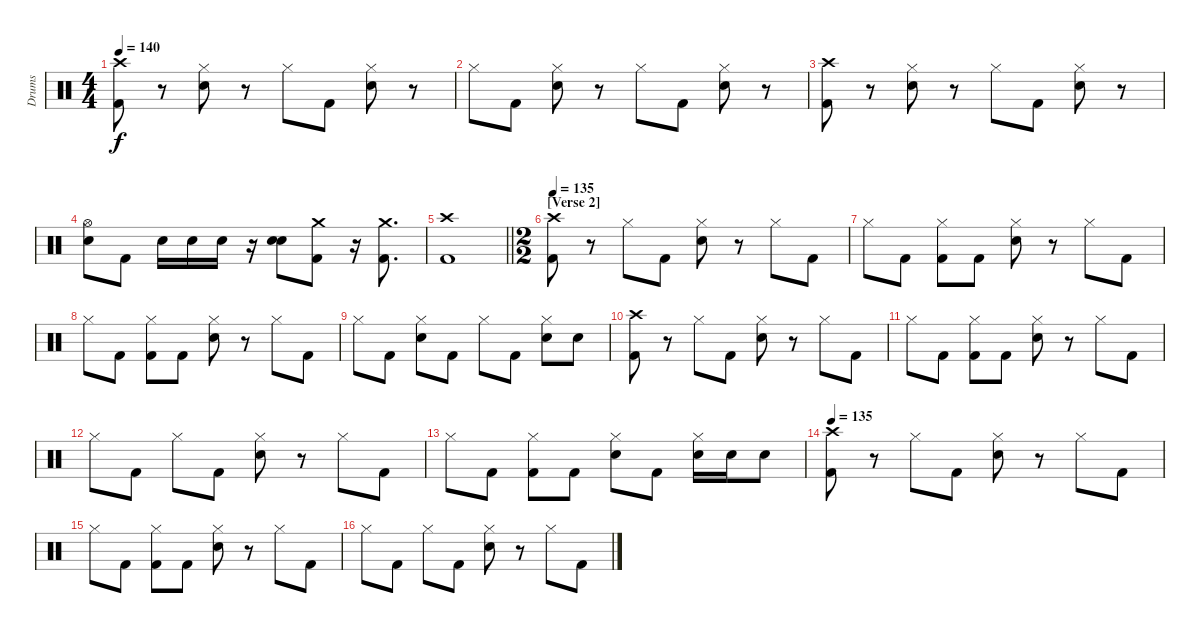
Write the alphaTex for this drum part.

\track ("Drums" "Drums") {instrument percussion}
\staff {score}
\articulation defaults
\ts (4 4)
\tempo 140
\clef neutral
\ks c
("Crash high (hit)" "Kick (hit) 2").8{dy f} r.8 ("Hi-Hat (closed)" "Snare (hit) 2").8 r.8 "Hi-Hat (closed)".8 "Kick (hit) 2".8 ("Hi-Hat (closed)" "Snare (hit) 2").8 r.8 |
"Hi-Hat (closed)".8 "Kick (hit) 2".8 ("Hi-Hat (closed)" "Snare (hit) 2").8 r.8 "Hi-Hat (closed)".8 "Kick (hit) 2".8 ("Hi-Hat (closed)" "Snare (hit) 2").8 r.8 |
("Crash high (hit)" "Kick (hit) 2").8 r.8 ("Hi-Hat (closed)" "Snare (hit) 2").8 r.8 "Hi-Hat (closed)".8 "Kick (hit) 2".8 ("Hi-Hat (closed)" "Snare (hit) 2").8 r.8 |
("Hi-Hat (open)" "Snare (hit) 2").8 "Kick (hit) 2".8 "Snare (hit) 2".16 "Snare (hit) 2".16 "Snare (hit) 2".16 r.16 ("Snare (hit) 2" "Snare (hit) 2").8{bd 480} ("Crash medium (hit)" "Kick (hit) 2").8 r.16 ("Crash medium (hit)" "Kick (hit) 2").8{d} |
\barLineRight lightlight
("Crash high (hit)" "Kick (hit) 2").1 |
\ts (2 2)
\section ("" "[Verse 2]")
\tempo 120
\tempo 135
("Crash high (hit)" "Kick (hit) 2").8 r.8 "Hi-Hat (closed)".8 "Kick (hit) 2".8 ("Hi-Hat (closed)" "Snare (hit) 2").8 r.8 "Hi-Hat (closed)".8 "Kick (hit) 2".8 |
"Hi-Hat (closed)".8 "Kick (hit) 2".8 ("Hi-Hat (closed)" "Kick (hit) 2").8 "Kick (hit) 2".8 ("Hi-Hat (closed)" "Snare (hit) 2").8 r.8 "Hi-Hat (closed)".8 "Kick (hit) 2".8 |
"Hi-Hat (closed)".8 "Kick (hit) 2".8 ("Hi-Hat (closed)" "Kick (hit) 2").8 "Kick (hit) 2".8 ("Hi-Hat (closed)" "Snare (hit) 2").8 r.8 "Hi-Hat (closed)".8 "Kick (hit) 2".8 |
"Hi-Hat (closed)".8 "Kick (hit) 2".8 ("Hi-Hat (closed)" "Snare (hit) 2").8 "Kick (hit) 2".8 "Hi-Hat (closed)".8 "Kick (hit) 2".8 ("Hi-Hat (closed)" "Snare (hit) 2").8 "Snare (hit) 2".8 |
("Crash high (hit)" "Kick (hit) 2").8 r.8 "Hi-Hat (closed)".8 "Kick (hit) 2".8 ("Hi-Hat (closed)" "Snare (hit) 2").8 r.8 "Hi-Hat (closed)".8 "Kick (hit) 2".8 |
"Hi-Hat (closed)".8 "Kick (hit) 2".8 ("Hi-Hat (closed)" "Kick (hit) 2").8 "Kick (hit) 2".8 ("Hi-Hat (closed)" "Snare (hit) 2").8 r.8 "Hi-Hat (closed)".8 "Kick (hit) 2".8 |
"Hi-Hat (closed)".8 "Kick (hit) 2".8 "Hi-Hat (closed)".8 "Kick (hit) 2".8 ("Hi-Hat (closed)" "Snare (hit) 2").8 r.8 "Hi-Hat (closed)".8 "Kick (hit) 2".8 |
"Hi-Hat (closed)".8 "Kick (hit) 2".8 ("Hi-Hat (closed)" "Kick (hit) 2").8 "Kick (hit) 2".8 ("Hi-Hat (closed)" "Snare (hit) 2").8 "Kick (hit) 2".8 ("Hi-Hat (closed)" "Snare (hit) 2").16 "Snare (hit) 2".16 "Snare (hit) 2".8 |
\tempo 135
("Crash high (hit)" "Kick (hit) 2").8 r.8 "Hi-Hat (closed)".8 "Kick (hit) 2".8 ("Hi-Hat (closed)" "Snare (hit) 2").8 r.8 "Hi-Hat (closed)".8 "Kick (hit) 2".8 |
"Hi-Hat (closed)".8 "Kick (hit) 2".8 ("Hi-Hat (closed)" "Kick (hit) 2").8 "Kick (hit) 2".8 ("Hi-Hat (closed)" "Snare (hit) 2").8 r.8 "Hi-Hat (closed)".8 "Kick (hit) 2".8 |
"Hi-Hat (closed)".8 "Kick (hit) 2".8 "Hi-Hat (closed)".8 "Kick (hit) 2".8 ("Hi-Hat (closed)" "Snare (hit) 2").8 r.8 "Hi-Hat (closed)".8 "Kick (hit) 2".8
